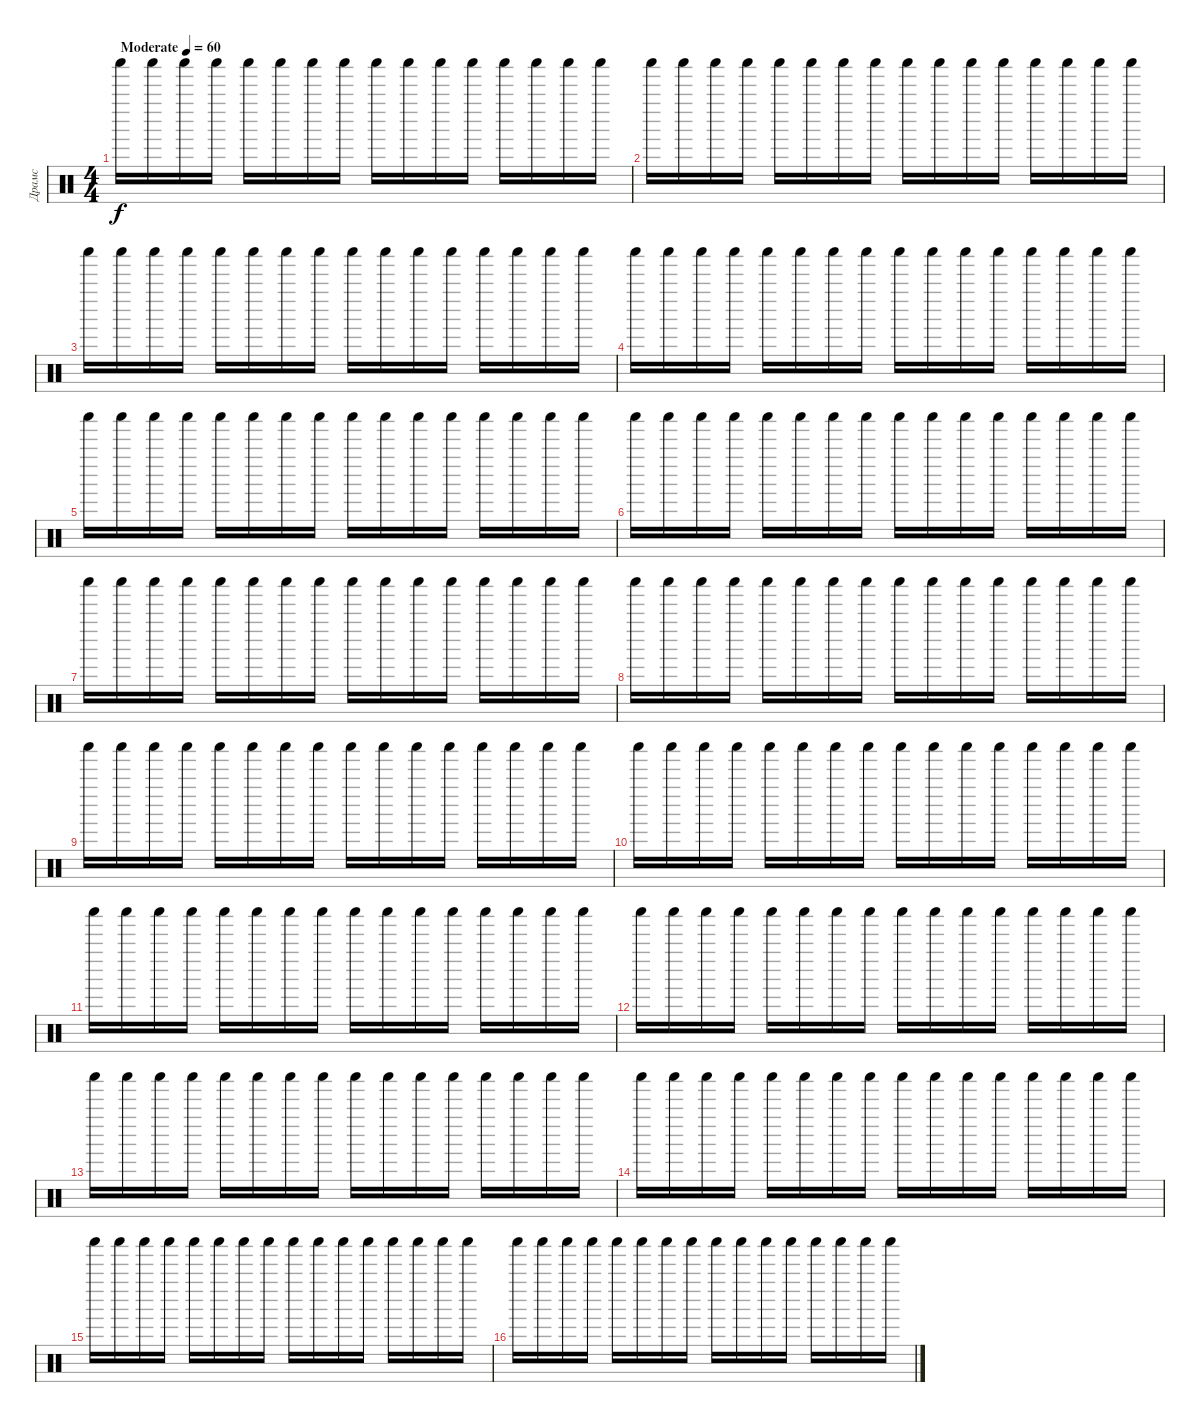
\track ("Драмс" "Драмс") {instrument percussion}
\staff {score}
\articulation defaults
\ts (4 4)
\tempo (60 "Moderate")
\clef neutral
\ks c "Shaker (hit)".16{dy f} "Shaker (hit)".16 "Shaker (hit)".16 "Shaker (hit)".16 "Shaker (hit)".16 "Shaker (hit)".16 "Shaker (hit)".16 "Shaker (hit)".16 "Shaker (hit)".16 "Shaker (hit)".16 "Shaker (hit)".16 "Shaker (hit)".16 "Shaker (hit)".16 "Shaker (hit)".16 "Shaker (hit)".16 "Shaker (hit)".16
|
"Shaker (hit)".16 "Shaker (hit)".16 "Shaker (hit)".16 "Shaker (hit)".16 "Shaker (hit)".16 "Shaker (hit)".16 "Shaker (hit)".16 "Shaker (hit)".16 "Shaker (hit)".16 "Shaker (hit)".16 "Shaker (hit)".16 "Shaker (hit)".16 "Shaker (hit)".16 "Shaker (hit)".16 "Shaker (hit)".16 "Shaker (hit)".16 |
"Shaker (hit)".16 "Shaker (hit)".16 "Shaker (hit)".16 "Shaker (hit)".16 "Shaker (hit)".16 "Shaker (hit)".16 "Shaker (hit)".16 "Shaker (hit)".16 "Shaker (hit)".16 "Shaker (hit)".16 "Shaker (hit)".16 "Shaker (hit)".16 "Shaker (hit)".16 "Shaker (hit)".16 "Shaker (hit)".16 "Shaker (hit)".16 |
"Shaker (hit)".16 "Shaker (hit)".16 "Shaker (hit)".16 "Shaker (hit)".16 "Shaker (hit)".16 "Shaker (hit)".16 "Shaker (hit)".16 "Shaker (hit)".16 "Shaker (hit)".16 "Shaker (hit)".16 "Shaker (hit)".16 "Shaker (hit)".16 "Shaker (hit)".16 "Shaker (hit)".16 "Shaker (hit)".16 "Shaker (hit)".16 |
"Shaker (hit)".16 "Shaker (hit)".16 "Shaker (hit)".16 "Shaker (hit)".16 "Shaker (hit)".16 "Shaker (hit)".16 "Shaker (hit)".16 "Shaker (hit)".16 "Shaker (hit)".16 "Shaker (hit)".16 "Shaker (hit)".16 "Shaker (hit)".16 "Shaker (hit)".16 "Shaker (hit)".16 "Shaker (hit)".16 "Shaker (hit)".16 |
"Shaker (hit)".16 "Shaker (hit)".16 "Shaker (hit)".16 "Shaker (hit)".16 "Shaker (hit)".16 "Shaker (hit)".16 "Shaker (hit)".16 "Shaker (hit)".16 "Shaker (hit)".16 "Shaker (hit)".16 "Shaker (hit)".16 "Shaker (hit)".16 "Shaker (hit)".16 "Shaker (hit)".16 "Shaker (hit)".16 "Shaker (hit)".16 |
"Shaker (hit)".16 "Shaker (hit)".16 "Shaker (hit)".16 "Shaker (hit)".16 "Shaker (hit)".16 "Shaker (hit)".16 "Shaker (hit)".16 "Shaker (hit)".16 "Shaker (hit)".16 "Shaker (hit)".16 "Shaker (hit)".16 "Shaker (hit)".16 "Shaker (hit)".16 "Shaker (hit)".16 "Shaker (hit)".16 "Shaker (hit)".16 |
"Shaker (hit)".16 "Shaker (hit)".16 "Shaker (hit)".16 "Shaker (hit)".16 "Shaker (hit)".16 "Shaker (hit)".16 "Shaker (hit)".16 "Shaker (hit)".16 "Shaker (hit)".16 "Shaker (hit)".16 "Shaker (hit)".16 "Shaker (hit)".16 "Shaker (hit)".16 "Shaker (hit)".16 "Shaker (hit)".16 "Shaker (hit)".16 |
"Shaker (hit)".16 "Shaker (hit)".16 "Shaker (hit)".16 "Shaker (hit)".16 "Shaker (hit)".16 "Shaker (hit)".16 "Shaker (hit)".16 "Shaker (hit)".16 "Shaker (hit)".16 "Shaker (hit)".16 "Shaker (hit)".16 "Shaker (hit)".16 "Shaker (hit)".16 "Shaker (hit)".16 "Shaker (hit)".16 "Shaker (hit)".16 |
"Shaker (hit)".16 "Shaker (hit)".16 "Shaker (hit)".16 "Shaker (hit)".16 "Shaker (hit)".16 "Shaker (hit)".16 "Shaker (hit)".16 "Shaker (hit)".16 "Shaker (hit)".16 "Shaker (hit)".16 "Shaker (hit)".16 "Shaker (hit)".16 "Shaker (hit)".16 "Shaker (hit)".16 "Shaker (hit)".16 "Shaker (hit)".16 |
"Shaker (hit)".16 "Shaker (hit)".16 "Shaker (hit)".16 "Shaker (hit)".16 "Shaker (hit)".16 "Shaker (hit)".16 "Shaker (hit)".16 "Shaker (hit)".16 "Shaker (hit)".16 "Shaker (hit)".16 "Shaker (hit)".16 "Shaker (hit)".16 "Shaker (hit)".16 "Shaker (hit)".16 "Shaker (hit)".16 "Shaker (hit)".16 |
"Shaker (hit)".16 "Shaker (hit)".16 "Shaker (hit)".16 "Shaker (hit)".16 "Shaker (hit)".16 "Shaker (hit)".16 "Shaker (hit)".16 "Shaker (hit)".16 "Shaker (hit)".16 "Shaker (hit)".16 "Shaker (hit)".16 "Shaker (hit)".16 "Shaker (hit)".16 "Shaker (hit)".16 "Shaker (hit)".16 "Shaker (hit)".16 |
"Shaker (hit)".16 "Shaker (hit)".16 "Shaker (hit)".16 "Shaker (hit)".16 "Shaker (hit)".16 "Shaker (hit)".16 "Shaker (hit)".16 "Shaker (hit)".16 "Shaker (hit)".16 "Shaker (hit)".16 "Shaker (hit)".16 "Shaker (hit)".16 "Shaker (hit)".16 "Shaker (hit)".16 "Shaker (hit)".16 "Shaker (hit)".16 |
"Shaker (hit)".16 "Shaker (hit)".16 "Shaker (hit)".16 "Shaker (hit)".16 "Shaker (hit)".16 "Shaker (hit)".16 "Shaker (hit)".16 "Shaker (hit)".16 "Shaker (hit)".16 "Shaker (hit)".16 "Shaker (hit)".16 "Shaker (hit)".16 "Shaker (hit)".16 "Shaker (hit)".16 "Shaker (hit)".16 "Shaker (hit)".16 |
"Shaker (hit)".16 "Shaker (hit)".16 "Shaker (hit)".16 "Shaker (hit)".16 "Shaker (hit)".16 "Shaker (hit)".16 "Shaker (hit)".16 "Shaker (hit)".16 "Shaker (hit)".16 "Shaker (hit)".16 "Shaker (hit)".16 "Shaker (hit)".16 "Shaker (hit)".16 "Shaker (hit)".16 "Shaker (hit)".16 "Shaker (hit)".16 |
"Shaker (hit)".16 "Shaker (hit)".16 "Shaker (hit)".16 "Shaker (hit)".16 "Shaker (hit)".16 "Shaker (hit)".16 "Shaker (hit)".16 "Shaker (hit)".16 "Shaker (hit)".16 "Shaker (hit)".16 "Shaker (hit)".16 "Shaker (hit)".16 "Shaker (hit)".16 "Shaker (hit)".16 "Shaker (hit)".16 "Shaker (hit)".16
